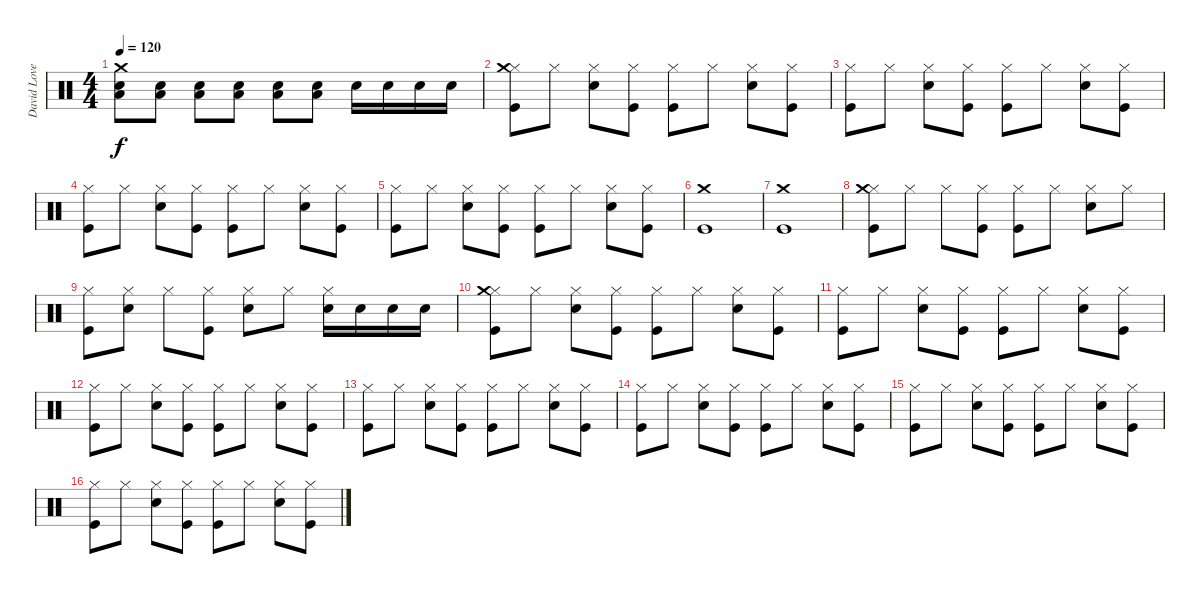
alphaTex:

\track ("David Lovering" "David Love") {instrument percussion}
\staff {score}
\articulation defaults
\ts (4 4)
\tempo 120
\clef neutral
\ks c
("Crash medium (hit)" "Snare (hit) 2" "Low Floor Tom (hit)").8{dy f} ("Snare (hit) 2" "Low Floor Tom (hit)").8 ("Snare (hit) 2" "Low Floor Tom (hit)").8 ("Snare (hit) 2" "Low Floor Tom (hit)").8 ("Snare (hit) 2" "Low Floor Tom (hit)").8 ("Snare (hit) 2" "Low Floor Tom (hit)").8 "Snare (hit) 2".16 "Snare (hit) 2".16 "Snare (hit) 2".16 "Snare (hit) 2".16 |
\section ("" "")
("Hi-Hat (closed)" "Crash medium (hit)" "Kick (hit)").8 "Hi-Hat (closed)".8 ("Hi-Hat (closed)" "Snare (hit) 2").8 ("Hi-Hat (closed)" "Kick (hit)").8 ("Hi-Hat (closed)" "Kick (hit)").8 "Hi-Hat (closed)".8 ("Hi-Hat (closed)" "Snare (hit) 2").8 ("Hi-Hat (closed)" "Kick (hit)").8 |
("Hi-Hat (closed)" "Kick (hit)").8 "Hi-Hat (closed)".8 ("Hi-Hat (closed)" "Snare (hit) 2").8 ("Hi-Hat (closed)" "Kick (hit)").8 ("Hi-Hat (closed)" "Kick (hit)").8 "Hi-Hat (closed)".8 ("Hi-Hat (closed)" "Snare (hit) 2").8 ("Hi-Hat (closed)" "Kick (hit)").8 |
("Hi-Hat (closed)" "Kick (hit)").8 "Hi-Hat (closed)".8 ("Hi-Hat (closed)" "Snare (hit) 2").8 ("Hi-Hat (closed)" "Kick (hit)").8 ("Hi-Hat (closed)" "Kick (hit)").8 "Hi-Hat (closed)".8 ("Hi-Hat (closed)" "Snare (hit) 2").8 ("Hi-Hat (closed)" "Kick (hit)").8 |
("Hi-Hat (closed)" "Kick (hit)").8 "Hi-Hat (closed)".8 ("Hi-Hat (closed)" "Snare (hit) 2").8 ("Hi-Hat (closed)" "Kick (hit)").8 ("Hi-Hat (closed)" "Kick (hit)").8 "Hi-Hat (closed)".8 ("Hi-Hat (closed)" "Snare (hit) 2").8 ("Hi-Hat (closed)" "Kick (hit)").8 |
("Crash medium (hit)" "Kick (hit)").1 |
("Crash medium (hit)" "Kick (hit)").1 |
("Hi-Hat (closed)" "Crash medium (hit)" "Kick (hit)").8 "Hi-Hat (closed)".8 "Hi-Hat (closed)".8 ("Hi-Hat (closed)" "Kick (hit)").8 ("Hi-Hat (closed)" "Kick (hit)").8 "Hi-Hat (closed)".8 ("Hi-Hat (closed)" "Snare (hit) 2").8 "Hi-Hat (closed)".8 |
("Hi-Hat (closed)" "Kick (hit)").8 ("Hi-Hat (closed)" "Snare (hit) 2").8 "Hi-Hat (closed)".8 ("Hi-Hat (closed)" "Kick (hit)").8 ("Hi-Hat (closed)" "Snare (hit) 2").8 "Hi-Hat (closed)".8 ("Hi-Hat (closed)" "Snare (hit) 2").16 "Snare (hit) 2".16 "Snare (hit) 2".16 "Snare (hit) 2".16 |
\section ("" "")
("Hi-Hat (closed)" "Crash medium (hit)" "Kick (hit)").8 "Hi-Hat (closed)".8 ("Hi-Hat (closed)" "Snare (hit) 2").8 ("Hi-Hat (closed)" "Kick (hit)").8 ("Hi-Hat (closed)" "Kick (hit)").8 "Hi-Hat (closed)".8 ("Hi-Hat (closed)" "Snare (hit) 2").8 ("Hi-Hat (closed)" "Kick (hit)").8 |
("Hi-Hat (closed)" "Kick (hit)").8 "Hi-Hat (closed)".8 ("Hi-Hat (closed)" "Snare (hit) 2").8 ("Hi-Hat (closed)" "Kick (hit)").8 ("Hi-Hat (closed)" "Kick (hit)").8 "Hi-Hat (closed)".8 ("Hi-Hat (closed)" "Snare (hit) 2").8 ("Hi-Hat (closed)" "Kick (hit)").8 |
("Hi-Hat (closed)" "Kick (hit)").8 "Hi-Hat (closed)".8 ("Hi-Hat (closed)" "Snare (hit) 2").8 ("Hi-Hat (closed)" "Kick (hit)").8 ("Hi-Hat (closed)" "Kick (hit)").8 "Hi-Hat (closed)".8 ("Hi-Hat (closed)" "Snare (hit) 2").8 ("Hi-Hat (closed)" "Kick (hit)").8 |
("Hi-Hat (closed)" "Kick (hit)").8 "Hi-Hat (closed)".8 ("Hi-Hat (closed)" "Snare (hit) 2").8 ("Hi-Hat (closed)" "Kick (hit)").8 ("Hi-Hat (closed)" "Kick (hit)").8 "Hi-Hat (closed)".8 ("Hi-Hat (closed)" "Snare (hit) 2").8 ("Hi-Hat (closed)" "Kick (hit)").8 |
("Hi-Hat (closed)" "Kick (hit)").8 "Hi-Hat (closed)".8 ("Hi-Hat (closed)" "Snare (hit) 2").8 ("Hi-Hat (closed)" "Kick (hit)").8 ("Hi-Hat (closed)" "Kick (hit)").8 "Hi-Hat (closed)".8 ("Hi-Hat (closed)" "Snare (hit) 2").8 ("Hi-Hat (closed)" "Kick (hit)").8 |
("Hi-Hat (closed)" "Kick (hit)").8 "Hi-Hat (closed)".8 ("Hi-Hat (closed)" "Snare (hit) 2").8 ("Hi-Hat (closed)" "Kick (hit)").8 ("Hi-Hat (closed)" "Kick (hit)").8 "Hi-Hat (closed)".8 ("Hi-Hat (closed)" "Snare (hit) 2").8 ("Hi-Hat (closed)" "Kick (hit)").8 |
("Hi-Hat (closed)" "Kick (hit)").8 "Hi-Hat (closed)".8 ("Hi-Hat (closed)" "Snare (hit) 2").8 ("Hi-Hat (closed)" "Kick (hit)").8 ("Hi-Hat (closed)" "Kick (hit)").8 "Hi-Hat (closed)".8 ("Hi-Hat (closed)" "Snare (hit) 2").8 ("Hi-Hat (closed)" "Kick (hit)").8
